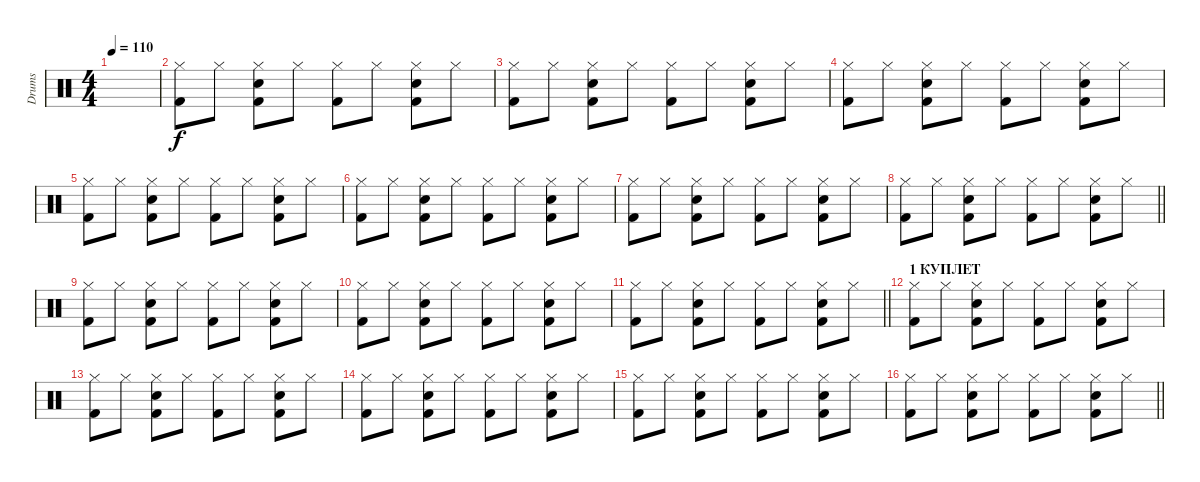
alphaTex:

\track ("Drums" "Drums") {instrument percussion}
\staff {score}
\articulation defaults
\ts (4 4)
\tempo 110
\clef neutral
\ks c
|
("Hi-Hat (closed)" "Kick (hit) 2").8 "Hi-Hat (closed)".8 ("Hi-Hat (closed)" "Snare (hit) 2" "Kick (hit) 2").8 "Hi-Hat (closed)".8 ("Hi-Hat (closed)" "Kick (hit) 2").8 "Hi-Hat (closed)".8 ("Hi-Hat (closed)" "Snare (hit) 2" "Kick (hit) 2").8 "Hi-Hat (closed)".8 |
("Hi-Hat (closed)" "Kick (hit) 2").8 "Hi-Hat (closed)".8 ("Hi-Hat (closed)" "Snare (hit) 2" "Kick (hit) 2").8 "Hi-Hat (closed)".8 ("Hi-Hat (closed)" "Kick (hit) 2").8 "Hi-Hat (closed)".8 ("Hi-Hat (closed)" "Snare (hit) 2" "Kick (hit) 2").8 "Hi-Hat (closed)".8 |
("Hi-Hat (closed)" "Kick (hit) 2").8 "Hi-Hat (closed)".8 ("Hi-Hat (closed)" "Snare (hit) 2" "Kick (hit) 2").8 "Hi-Hat (closed)".8 ("Hi-Hat (closed)" "Kick (hit) 2").8 "Hi-Hat (closed)".8 ("Hi-Hat (closed)" "Snare (hit) 2" "Kick (hit) 2").8 "Hi-Hat (closed)".8 |
("Hi-Hat (closed)" "Kick (hit) 2").8 "Hi-Hat (closed)".8 ("Hi-Hat (closed)" "Snare (hit) 2" "Kick (hit) 2").8 "Hi-Hat (closed)".8 ("Hi-Hat (closed)" "Kick (hit) 2").8 "Hi-Hat (closed)".8 ("Hi-Hat (closed)" "Snare (hit) 2" "Kick (hit) 2").8 "Hi-Hat (closed)".8 |
("Hi-Hat (closed)" "Kick (hit) 2").8 "Hi-Hat (closed)".8 ("Hi-Hat (closed)" "Snare (hit) 2" "Kick (hit) 2").8 "Hi-Hat (closed)".8 ("Hi-Hat (closed)" "Kick (hit) 2").8 "Hi-Hat (closed)".8 ("Hi-Hat (closed)" "Snare (hit) 2" "Kick (hit) 2").8 "Hi-Hat (closed)".8 |
("Hi-Hat (closed)" "Kick (hit) 2").8 "Hi-Hat (closed)".8 ("Hi-Hat (closed)" "Snare (hit) 2" "Kick (hit) 2").8 "Hi-Hat (closed)".8 ("Hi-Hat (closed)" "Kick (hit) 2").8 "Hi-Hat (closed)".8 ("Hi-Hat (closed)" "Snare (hit) 2" "Kick (hit) 2").8 "Hi-Hat (closed)".8 |
\barLineRight lightlight
("Hi-Hat (closed)" "Kick (hit) 2").8 "Hi-Hat (closed)".8 ("Hi-Hat (closed)" "Snare (hit) 2" "Kick (hit) 2").8 "Hi-Hat (closed)".8 ("Hi-Hat (closed)" "Kick (hit) 2").8 "Hi-Hat (closed)".8 ("Hi-Hat (closed)" "Snare (hit) 2" "Kick (hit) 2").8 "Hi-Hat (closed)".8 |
("Hi-Hat (closed)" "Kick (hit) 2").8 "Hi-Hat (closed)".8 ("Hi-Hat (closed)" "Snare (hit) 2" "Kick (hit) 2").8 "Hi-Hat (closed)".8 ("Hi-Hat (closed)" "Kick (hit) 2").8 "Hi-Hat (closed)".8 ("Hi-Hat (closed)" "Snare (hit) 2" "Kick (hit) 2").8 "Hi-Hat (closed)".8 |
("Hi-Hat (closed)" "Kick (hit) 2").8 "Hi-Hat (closed)".8 ("Hi-Hat (closed)" "Snare (hit) 2" "Kick (hit) 2").8 "Hi-Hat (closed)".8 ("Hi-Hat (closed)" "Kick (hit) 2").8 "Hi-Hat (closed)".8 ("Hi-Hat (closed)" "Snare (hit) 2" "Kick (hit) 2").8 "Hi-Hat (closed)".8 |
\barLineRight lightlight
("Hi-Hat (closed)" "Kick (hit) 2").8 "Hi-Hat (closed)".8 ("Hi-Hat (closed)" "Snare (hit) 2" "Kick (hit) 2").8 "Hi-Hat (closed)".8 ("Hi-Hat (closed)" "Kick (hit) 2").8 "Hi-Hat (closed)".8 ("Hi-Hat (closed)" "Snare (hit) 2" "Kick (hit) 2").8 "Hi-Hat (closed)".8 |
\section ("" "1 КУПЛЕТ")
("Hi-Hat (closed)" "Kick (hit) 2").8 "Hi-Hat (closed)".8 ("Hi-Hat (closed)" "Snare (hit) 2" "Kick (hit) 2").8 "Hi-Hat (closed)".8 ("Hi-Hat (closed)" "Kick (hit) 2").8 "Hi-Hat (closed)".8 ("Hi-Hat (closed)" "Snare (hit) 2" "Kick (hit) 2").8 "Hi-Hat (closed)".8 |
("Hi-Hat (closed)" "Kick (hit) 2").8 "Hi-Hat (closed)".8 ("Hi-Hat (closed)" "Snare (hit) 2" "Kick (hit) 2").8 "Hi-Hat (closed)".8 ("Hi-Hat (closed)" "Kick (hit) 2").8 "Hi-Hat (closed)".8 ("Hi-Hat (closed)" "Snare (hit) 2" "Kick (hit) 2").8 "Hi-Hat (closed)".8 |
("Hi-Hat (closed)" "Kick (hit) 2").8 "Hi-Hat (closed)".8 ("Hi-Hat (closed)" "Snare (hit) 2" "Kick (hit) 2").8 "Hi-Hat (closed)".8 ("Hi-Hat (closed)" "Kick (hit) 2").8 "Hi-Hat (closed)".8 ("Hi-Hat (closed)" "Snare (hit) 2" "Kick (hit) 2").8 "Hi-Hat (closed)".8 |
("Hi-Hat (closed)" "Kick (hit) 2").8 "Hi-Hat (closed)".8 ("Hi-Hat (closed)" "Snare (hit) 2" "Kick (hit) 2").8 "Hi-Hat (closed)".8 ("Hi-Hat (closed)" "Kick (hit) 2").8 "Hi-Hat (closed)".8 ("Hi-Hat (closed)" "Snare (hit) 2" "Kick (hit) 2").8 "Hi-Hat (closed)".8 |
\barLineRight lightlight
("Hi-Hat (closed)" "Kick (hit) 2").8 "Hi-Hat (closed)".8 ("Hi-Hat (closed)" "Snare (hit) 2" "Kick (hit) 2").8 "Hi-Hat (closed)".8 ("Hi-Hat (closed)" "Kick (hit) 2").8 "Hi-Hat (closed)".8 ("Hi-Hat (closed)" "Snare (hit) 2" "Kick (hit) 2").8 "Hi-Hat (closed)".8
